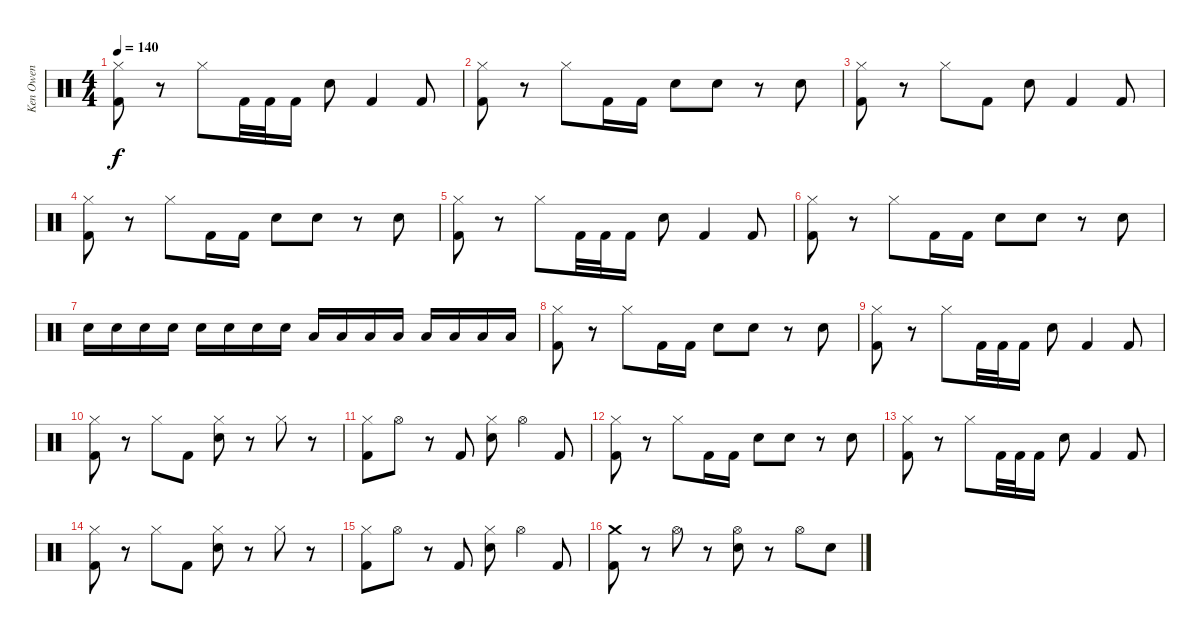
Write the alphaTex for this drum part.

\track ("Ken Owen" "Ken Owen") {instrument percussion}
\staff {score}
\articulation defaults
\ts (4 4)
\tempo 140
\clef neutral
\ks c
("Hi-Hat (closed)" "Kick (hit) 2").8{dy f} r.8 "Hi-Hat (closed)".8 "Kick (hit) 2".32 "Kick (hit) 2".32 "Kick (hit) 2".16 "Electric Snare (hit)".8 "Kick (hit) 2".4 "Kick (hit) 2".8 |
("Hi-Hat (closed)" "Kick (hit) 2").8 r.8 "Hi-Hat (closed)".8 "Kick (hit) 2".16 "Kick (hit) 2".16 "Electric Snare (hit)".8 "Electric Snare (hit)".8 r.8 "Electric Snare (hit)".8 |
("Hi-Hat (closed)" "Kick (hit) 2").8 r.8 "Hi-Hat (closed)".8 "Kick (hit) 2".8 "Electric Snare (hit)".8 "Kick (hit) 2".4 "Kick (hit) 2".8 |
("Hi-Hat (closed)" "Kick (hit) 2").8 r.8 "Hi-Hat (closed)".8 "Kick (hit) 2".16 "Kick (hit) 2".16 "Electric Snare (hit)".8 "Electric Snare (hit)".8 r.8 "Electric Snare (hit)".8 |
("Hi-Hat (closed)" "Kick (hit) 2").8 r.8 "Hi-Hat (closed)".8 "Kick (hit) 2".32 "Kick (hit) 2".32 "Kick (hit) 2".16 "Electric Snare (hit)".8 "Kick (hit) 2".4 "Kick (hit) 2".8 |
("Hi-Hat (closed)" "Kick (hit) 2").8 r.8 "Hi-Hat (closed)".8 "Kick (hit) 2".16 "Kick (hit) 2".16 "Electric Snare (hit)".8 "Electric Snare (hit)".8 r.8 "Electric Snare (hit)".8 |
"Electric Snare (hit)".16 "Electric Snare (hit)".16 "Electric Snare (hit)".16 "Electric Snare (hit)".16 "Electric Snare (hit)".16 "Electric Snare (hit)".16 "Electric Snare (hit)".16 "Electric Snare (hit)".16 "Low Floor Tom (hit)".16 "Low Floor Tom (hit)".16 "Low Floor Tom (hit)".16 "Low Floor Tom (hit)".16 "Low Floor Tom (hit)".16 "Low Floor Tom (hit)".16 "Low Floor Tom (hit)".16 "Low Floor Tom (hit)".16 |
("Hi-Hat (closed)" "Kick (hit) 2").8 r.8 "Hi-Hat (closed)".8 "Kick (hit) 2".16 "Kick (hit) 2".16 "Electric Snare (hit)".8 "Electric Snare (hit)".8 r.8 "Electric Snare (hit)".8 |
("Hi-Hat (closed)" "Kick (hit) 2").8 r.8 "Hi-Hat (closed)".8 "Kick (hit) 2".32 "Kick (hit) 2".32 "Kick (hit) 2".16 "Electric Snare (hit)".8 "Kick (hit) 2".4 "Kick (hit) 2".8 |
("Hi-Hat (closed)" "Kick (hit) 2").8 r.8 "Hi-Hat (closed)".8 "Kick (hit) 2".8 ("Hi-Hat (closed)" "Electric Snare (hit)").8 r.8 "Hi-Hat (closed)".8 r.8 |
("Hi-Hat (closed)" "Kick (hit) 2").8 "Hi-Hat (open)".8 r.8 "Kick (hit) 2".8 ("Hi-Hat (closed)" "Electric Snare (hit)").8 "Hi-Hat (open)".4 "Kick (hit) 2".8 |
("Hi-Hat (closed)" "Kick (hit) 2").8 r.8 "Hi-Hat (closed)".8 "Kick (hit) 2".16 "Kick (hit) 2".16 "Electric Snare (hit)".8 "Electric Snare (hit)".8 r.8 "Electric Snare (hit)".8 |
("Hi-Hat (closed)" "Kick (hit) 2").8 r.8 "Hi-Hat (closed)".8 "Kick (hit) 2".32 "Kick (hit) 2".32 "Kick (hit) 2".16 "Electric Snare (hit)".8 "Kick (hit) 2".4 "Kick (hit) 2".8 |
("Hi-Hat (closed)" "Kick (hit) 2").8 r.8 "Hi-Hat (closed)".8 "Kick (hit) 2".8 ("Hi-Hat (closed)" "Electric Snare (hit)").8 r.8 "Hi-Hat (closed)".8 r.8 |
("Hi-Hat (closed)" "Kick (hit) 2").8 "Hi-Hat (open)".8 r.8 "Kick (hit) 2".8 ("Hi-Hat (closed)" "Electric Snare (hit)").8 "Hi-Hat (open)".4 "Kick (hit) 2".8 |
("Crash medium (hit)" "Kick (hit) 2").8 r.8 "Hi-Hat (open)".8 r.8 ("Hi-Hat (open)" "Electric Snare (hit)").8 r.8 "Hi-Hat (open)".8 "Electric Snare (hit)".8
